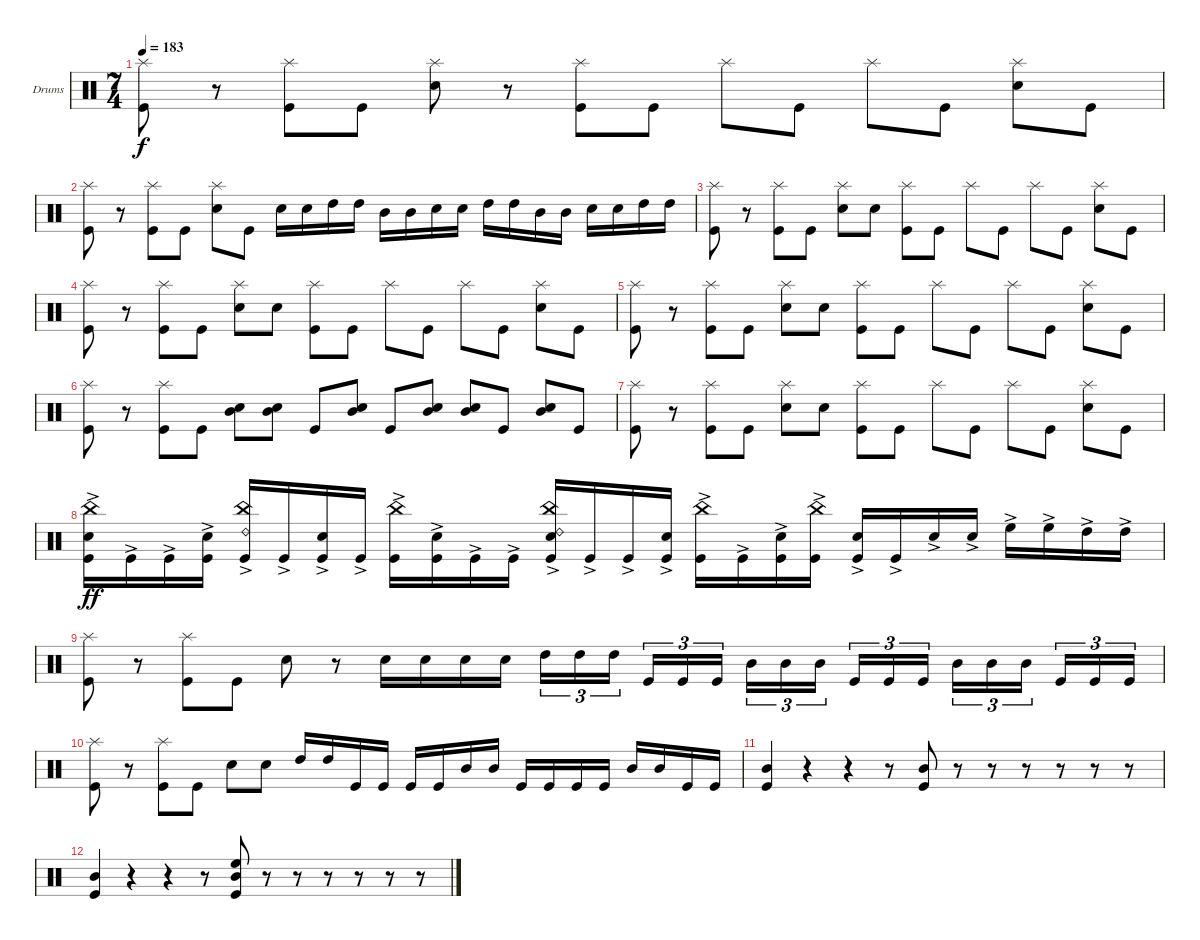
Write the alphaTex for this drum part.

\bracketExtendMode groupsimilarinstruments
\firstSystemTrackNameOrientation horizontal
\otherSystemsTrackNameOrientation horizontal
\track ("Drumkit" "Drums") {instrument percussion}
\staff {score}
\articulation defaults
\ts (7 4)
\tempo 183
\clef neutral
\ks c
("Kick (hit)" "Splash (hit)").8{dy f} r.8 ("Kick (hit)" "Splash (hit)").8 "Kick (hit)".8 ("Snare (hit) 2" "Splash (hit)").8 r.8 ("Kick (hit)" "Splash (hit)").8 "Kick (hit)".8 "Splash (hit)".8 "Kick (hit)".8 "Splash (hit)".8 "Kick (hit)".8 ("Snare (hit) 2" "Splash (hit)").8 "Kick (hit)".8 |
("Kick (hit)" "Splash (hit)").8 r.8 ("Kick (hit)" "Splash (hit)").8 "Kick (hit)".8 ("Snare (hit) 2" "Splash (hit)").8 "Kick (hit)".8 "Snare (hit) 2".16 "Snare (hit) 2".16 "High Tom (hit)".16 "High Tom (hit)".16 "Mid Tom (hit)".16 "Mid Tom (hit)".16 "Snare (hit) 2".16 "Snare (hit) 2".16 "High Tom (hit)".16 "High Tom (hit)".16 "Mid Tom (hit)".16 "Mid Tom (hit)".16 "Snare (hit) 2".16 "Snare (hit) 2".16 "High Tom (hit)".16 "High Tom (hit)".16 |
("Kick (hit)" "Splash (hit)").8 r.8 ("Kick (hit)" "Splash (hit)").8 "Kick (hit)".8 ("Snare (hit) 2" "Splash (hit)").8 "Snare (hit) 2".8 ("Kick (hit)" "Splash (hit)").8 "Kick (hit)".8 "Splash (hit)".8 "Kick (hit)".8 "Splash (hit)".8 "Kick (hit)".8 ("Snare (hit) 2" "Splash (hit)").8 "Kick (hit)".8 |
("Kick (hit)" "Splash (hit)").8 r.8 ("Kick (hit)" "Splash (hit)").8 "Kick (hit)".8 ("Snare (hit) 2" "Splash (hit)").8 "Snare (hit) 2".8 ("Kick (hit)" "Splash (hit)").8 "Kick (hit)".8 "Splash (hit)".8 "Kick (hit)".8 "Splash (hit)".8 "Kick (hit)".8 ("Snare (hit) 2" "Splash (hit)").8 "Kick (hit)".8 |
("Kick (hit)" "Splash (hit)").8 r.8 ("Kick (hit)" "Splash (hit)").8 "Kick (hit)".8 ("Snare (hit) 2" "Splash (hit)").8 "Snare (hit) 2".8 ("Kick (hit)" "Splash (hit)").8 "Kick (hit)".8 "Splash (hit)".8 "Kick (hit)".8 "Splash (hit)".8 "Kick (hit)".8 ("Snare (hit) 2" "Splash (hit)").8 "Kick (hit)".8 |
("Kick (hit)" "Splash (hit)").8 r.8 ("Kick (hit)" "Splash (hit)").8 "Kick (hit)".8 ("Snare (hit) 2" "Mid Tom (hit)").8 ("Snare (hit) 2" "Mid Tom (hit)").8 "Kick (hit)".8 ("Snare (hit) 2" "Mid Tom (hit)").8 "Kick (hit)".8 ("Snare (hit) 2" "Mid Tom (hit)").8 ("Snare (hit) 2" "Mid Tom (hit)").8 "Kick (hit)".8 ("Snare (hit) 2" "Mid Tom (hit)").8 "Kick (hit)".8 |
("Kick (hit)" "Splash (hit)").8 r.8 ("Kick (hit)" "Splash (hit)").8 "Kick (hit)".8 ("Snare (hit) 2" "Splash (hit)").8 "Snare (hit) 2".8 ("Kick (hit)" "Splash (hit)").8 "Kick (hit)".8 "Splash (hit)".8 "Kick (hit)".8 "Splash (hit)".8 "Kick (hit)".8 ("Snare (hit) 2" "Splash (hit)").8 "Kick (hit)".8 |
("Kick (hit)"{ac} "Snare (hit) 2"{ac} "China (hit)").16{dy ff} "Kick (hit)"{ac}.16 "Kick (hit)"{ac}.16 ("Kick (hit)"{ac} "Snare (hit) 2"{ac}).16 ("Kick (hit)"{ac} "Ride (bell) 2"{ac} "China (hit)").16 "Kick (hit)"{ac}.16 ("Kick (hit)"{ac} "Snare (hit) 2"{ac}).16 "Kick (hit)"{ac}.16 ("Kick (hit)"{ac} "China (hit)").16 ("Kick (hit)"{ac} "Snare (hit) 2"{ac}).16 "Kick (hit)"{ac}.16 "Kick (hit)"{ac}.16 ("Kick (hit)"{ac} "Ride (bell) 2"{ac} "Snare (hit) 2"{ac} "China (hit)").16 "Kick (hit)"{ac}.16 "Kick (hit)"{ac}.16 ("Kick (hit)"{ac} "Snare (hit) 2"{ac}).16 ("Kick (hit)"{ac} "China (hit)").16 "Kick (hit)"{ac}.16 ("Kick (hit)"{ac} "Snare (hit) 2"{ac}).16 ("Kick (hit)"{ac} "China (hit)").16 ("Kick (hit)"{ac} "Snare (hit) 2"{ac}).16 "Kick (hit)"{ac}.16 "Snare (hit) 2"{ac}.16 "Snare (hit) 2"{ac}.16 "High Floor Tom (hit)"{ac}.16 "High Floor Tom (hit)"{ac}.16 "High Tom (hit)"{ac}.16 "High Tom (hit)"{ac}.16 |
("Kick (hit)" "Splash (hit)").8 r.8 ("Kick (hit)" "Splash (hit)").8 "Kick (hit)".8 "Snare (hit) 2".8 r.8 "Snare (hit) 2".16 "Snare (hit) 2".16 "Snare (hit) 2".16 "Snare (hit) 2".16 "High Tom (hit)".16{tu (3 2)} "High Tom (hit)".16{tu (3 2)} "High Tom (hit)".16{tu (3 2)} "Kick (hit)".16{tu (3 2)} "Kick (hit)".16{tu (3 2)} "Kick (hit)".16{tu (3 2)} "Mid Tom (hit)".16{tu (3 2)} "Mid Tom (hit)".16{tu (3 2)} "Mid Tom (hit)".16{tu (3 2)} "Kick (hit)".16{tu (3 2)} "Kick (hit)".16{tu (3 2)} "Kick (hit)".16{tu (3 2)} "Mid Tom (hit)".16{tu (3 2)} "Mid Tom (hit)".16{tu (3 2)} "Mid Tom (hit)".16{tu (3 2)} "Kick (hit)".16{tu (3 2)} "Kick (hit)".16{tu (3 2)} "Kick (hit)".16{tu (3 2)} |
("Kick (hit)" "Splash (hit)").8 r.8 ("Kick (hit)" "Splash (hit)").8 "Kick (hit)".8 "Snare (hit) 2".8 "Snare (hit) 2".8 "High Tom (hit)".16 "High Tom (hit)".16 "Kick (hit)".16 "Kick (hit)".16 "Kick (hit)".16 "Kick (hit)".16 "Mid Tom (hit)".16 "Mid Tom (hit)".16 "Kick (hit)".16 "Kick (hit)".16 "Kick (hit)".16 "Kick (hit)".16 "Mid Tom (hit)".16 "Mid Tom (hit)".16 "Kick (hit)".16 "Kick (hit)".16 |
("Kick (hit)" "Mid Tom (hit)").4 r.4 r.4 r.8 ("Kick (hit)" "Mid Tom (hit)").8 r.8 r.8 r.8 r.8 r.8 r.8 |
("Kick (hit)" "Mid Tom (hit)").4 r.4 r.4 r.8 ("Kick (hit)" "Mid Tom (hit)" "High Floor Tom (hit)").8 r.8 r.8 r.8 r.8 r.8 r.8
